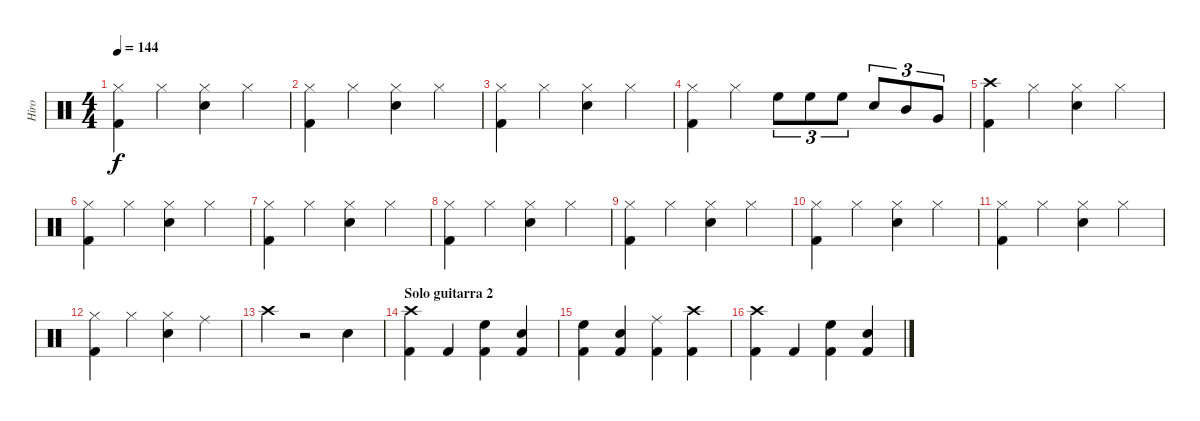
\track ("Hiro" "Hiro") {instrument percussion}
\staff {score}
\articulation defaults
\ts (4 4)
\tempo 144
\clef neutral
\ks c
("Hi-Hat (closed)" "Kick (hit) 2").4{dy f} "Hi-Hat (closed)".4 ("Hi-Hat (closed)" "Snare (hit) 2").4 "Hi-Hat (closed)".4 |
("Hi-Hat (closed)" "Kick (hit) 2").4 "Hi-Hat (closed)".4 ("Hi-Hat (closed)" "Snare (hit) 2").4 "Hi-Hat (closed)".4 |
("Hi-Hat (closed)" "Kick (hit) 2").4 "Hi-Hat (closed)".4 ("Hi-Hat (closed)" "Snare (hit) 2").4 "Hi-Hat (closed)".4 |
("Kick (hit) 2" "Hi-Hat (closed)").4 "Hi-Hat (closed)".4 "High Floor Tom (hit)".8{tu (3 2)} "High Floor Tom (hit)".8{tu (3 2)} "High Floor Tom (hit)".8{tu (3 2)} "Snare (hit) 2".8{tu (3 2)} "Mid Tom (hit)".8{tu (3 2)} "Very Low Tom (hit)".8{tu (3 2)} |
("Crash high (hit)" "Kick (hit) 2").4 "Hi-Hat (closed)".4 ("Hi-Hat (closed)" "Snare (hit) 2").4 "Hi-Hat (closed)".4 |
("Kick (hit) 2" "Hi-Hat (closed)").4 "Hi-Hat (closed)".4 ("Snare (hit) 2" "Hi-Hat (closed)").4 "Hi-Hat (closed)".4 |
("Kick (hit) 2" "Hi-Hat (closed)").4 "Hi-Hat (closed)".4 ("Snare (hit) 2" "Hi-Hat (closed)").4 "Hi-Hat (closed)".4 |
("Kick (hit) 2" "Hi-Hat (closed)").4 "Hi-Hat (closed)".4 ("Snare (hit) 2" "Hi-Hat (closed)").4 "Hi-Hat (closed)".4 |
("Kick (hit) 2" "Hi-Hat (closed)").4 "Hi-Hat (closed)".4 ("Snare (hit) 2" "Hi-Hat (closed)").4 "Hi-Hat (closed)".4 |
("Hi-Hat (closed)" "Kick (hit) 2").4 "Hi-Hat (closed)".4 ("Snare (hit) 2" "Hi-Hat (closed)").4 "Hi-Hat (closed)".4 |
("Hi-Hat (closed)" "Kick (hit) 2").4 "Hi-Hat (closed)".4 ("Snare (hit) 2" "Hi-Hat (closed)").4 "Hi-Hat (closed)".4 |
("Kick (hit) 2" "Hi-Hat (closed)").4 "Hi-Hat (closed)".4 ("Snare (hit) 2" "Hi-Hat (closed)").4 "Ride (middle)".4 |
"Crash high (hit)".4 r.2 "Snare (hit) 2".4 |
\section ("" "Solo guitarra 2")
("Crash high (hit)" "Kick (hit) 2").4 "Kick (hit) 2".4 ("High Floor Tom (hit)" "Kick (hit) 2").4 ("Snare (hit) 2" "Kick (hit) 2").4 |
("High Floor Tom (hit)" "Kick (hit) 2").4 ("Snare (hit) 2" "Kick (hit) 2").4 ("Kick (hit) 2" "Ride (middle)").4 ("Crash high (hit)" "Kick (hit) 2").4 |
("Crash high (hit)" "Kick (hit) 2").4 "Kick (hit) 2".4 ("High Floor Tom (hit)" "Kick (hit) 2").4 ("Snare (hit) 2" "Kick (hit) 2").4
